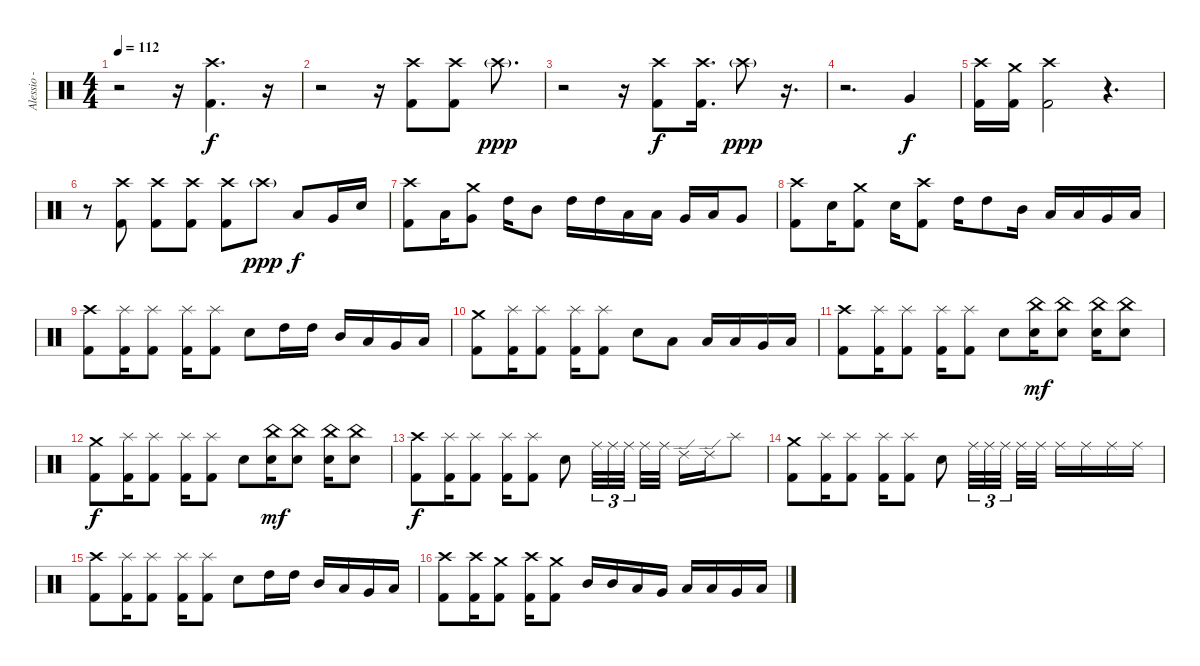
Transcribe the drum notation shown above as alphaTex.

\track ("Alessio - Drums" "Alessio - ") {instrument percussion}
\staff {score}
\articulation defaults
\ts (4 4)
\tempo 112
\clef neutral
\ks c
r.2{dy f} r.16 ("Crash high (hit)" "Kick (hit) 2").4{d} r.16 |
r.2 r.16 ("Crash high (hit)" "Kick (hit) 2").8 ("Crash high (hit)" "Kick (hit) 2").8 "Crash high (hit)"{g}.8{d dy ppp} |
r.2 r.16 ("Crash high (hit)" "Kick (hit) 2").8{dy f} ("Crash high (hit)" "Kick (hit) 2").16{d} "Crash high (hit)"{g}.8{dy ppp} r.16{d} |
r.2{d} "Very Low Tom (hit)".4{dy f} |
("Crash high (hit)" "Kick (hit) 2").16 ("Crash medium (hit)" "Kick (hit) 2").16 ("Crash high (hit)" "Kick (hit) 2").2 r.4{d} |
r.8 ("Crash high (hit)" "Kick (hit) 2").8 ("Crash high (hit)" "Kick (hit) 2").8 ("Crash high (hit)" "Kick (hit) 2").8 ("Crash high (hit)" "Kick (hit) 2").8 "Crash high (hit)"{g}.8{dy ppp} "Low Tom (hit)".8{dy f} "Very Low Tom (hit)".16 "Electric Snare (hit)".16 |
("Crash high (hit)" "Kick (hit) 2").8 "Low Tom (hit)".16 ("Crash medium (hit)" "Very Low Tom (hit)").8 "High Tom (hit)".16 "Mid Tom (hit)".8 "High Tom (hit)".16 "High Tom (hit)".16 "Low Floor Tom (hit)".16 "Low Floor Tom (hit)".16 "Very Low Tom (hit)".16 "Low Tom (hit)".16 "Very Low Tom (hit)".8 |
("Crash high (hit)" "Kick (hit) 2").8 "Electric Snare (hit)".16 ("Crash medium (hit)" "Kick (hit) 2").8 "Electric Snare (hit)".16 ("Crash high (hit)" "Kick (hit) 2").8 "High Tom (hit)".16 "High Tom (hit)".8 "Mid Tom (hit)".16 "Low Tom (hit)".16 "Low Tom (hit)".16 "Very Low Tom (hit)".16 "Low Floor Tom (hit)".16 |
("Crash high (hit)" "Kick (hit) 2").8 ("Splash (hit)" "Kick (hit) 2").16 ("Splash (hit)" "Kick (hit) 2").8 ("Splash (hit)" "Kick (hit) 2").16 ("Splash (hit)" "Kick (hit) 2").8 "Electric Snare (hit)".8 "High Tom (hit)".16 "High Tom (hit)".16 "Mid Tom (hit)".16 "Low Tom (hit)".16 "Very Low Tom (hit)".16 "Low Floor Tom (hit)".16 |
("Crash medium (hit)" "Kick (hit) 2").8 ("Splash (hit)" "Kick (hit) 2").16 ("Splash (hit)" "Kick (hit) 2").8 ("Splash (hit)" "Kick (hit) 2").16 ("Splash (hit)" "Kick (hit) 2").8 "Electric Snare (hit)".8 "Low Floor Tom (hit)".8 "Low Tom (hit)".16 "Low Tom (hit)".16 "Very Low Tom (hit)".16 "Low Floor Tom (hit)".16 |
("Crash high (hit)" "Kick (hit) 2").8 ("Splash (hit)" "Kick (hit) 2").16 ("Splash (hit)" "Kick (hit) 2").8 ("Splash (hit)" "Kick (hit) 2").16 ("Splash (hit)" "Kick (hit) 2").8 "Electric Snare (hit)".8 ("China (hit)" "Electric Snare (hit)").16{dy mf} ("China (hit)" "Electric Snare (hit)").8 ("China (hit)" "Electric Snare (hit)").16 ("China (hit)" "Electric Snare (hit)").8 |
("Crash medium (hit)" "Kick (hit) 2").8{dy f} ("Splash (hit)" "Kick (hit) 2").16 ("Splash (hit)" "Kick (hit) 2").8 ("Splash (hit)" "Kick (hit) 2").16 ("Splash (hit)" "Kick (hit) 2").8 "Electric Snare (hit)".8 ("China (hit)" "Electric Snare (hit)").16{dy mf} ("China (hit)" "Electric Snare (hit)").8 ("China (hit)" "Electric Snare (hit)").16 ("China (hit)" "Electric Snare (hit)").8 |
("Crash high (hit)" "Kick (hit) 2").8{dy f} ("Splash (hit)" "Kick (hit) 2").16 ("Splash (hit)" "Kick (hit) 2").8 ("Splash (hit)" "Kick (hit) 2").16 ("Splash (hit)" "Kick (hit) 2").8 "Electric Snare (hit)".8 "Ride (middle)".32{tu (3 2)} "Ride (middle)".32{tu (3 2)} "Ride (middle)".32{tu (3 2)} "Ride (middle)".32 "Ride (middle)".32 "Ride (edge) 2".16 "Ride (edge) 2".16 "Splash (hit)".8 |
("Crash medium (hit)" "Kick (hit) 2").8 ("Splash (hit)" "Kick (hit) 2").16 ("Splash (hit)" "Kick (hit) 2").8 ("Splash (hit)" "Kick (hit) 2").16 ("Splash (hit)" "Kick (hit) 2").8 "Electric Snare (hit)".8 "Ride (middle)".32{tu (3 2)} "Ride (middle)".32{tu (3 2)} "Ride (middle)".32{tu (3 2)} "Ride (middle)".32 "Ride (middle)".32 "Ride (middle)".16 "Ride (middle)".16 "Ride (middle)".16 "Ride (middle)".16 |
("Crash high (hit)" "Kick (hit) 2").8 ("Splash (hit)" "Kick (hit) 2").16 ("Splash (hit)" "Kick (hit) 2").8 ("Splash (hit)" "Kick (hit) 2").16 ("Splash (hit)" "Kick (hit) 2").8 "Electric Snare (hit)".8 "High Tom (hit)".16 "High Tom (hit)".16 "Mid Tom (hit)".16 "Low Tom (hit)".16 "Very Low Tom (hit)".16 "Low Floor Tom (hit)".16 |
("Crash high (hit)" "Kick (hit) 2").8 ("Crash high (hit)" "Kick (hit) 2").16 ("Crash medium (hit)" "Kick (hit) 2").8 ("Crash high (hit)" "Kick (hit) 2").16 ("Crash medium (hit)" "Kick (hit) 2").8 "Mid Tom (hit)".16 "Mid Tom (hit)".16 "Low Tom (hit)".16 "Very Low Tom (hit)".16 "Low Floor Tom (hit)".16 "Low Floor Tom (hit)".16 "Very Low Tom (hit)".16 "Low Floor Tom (hit)".16
